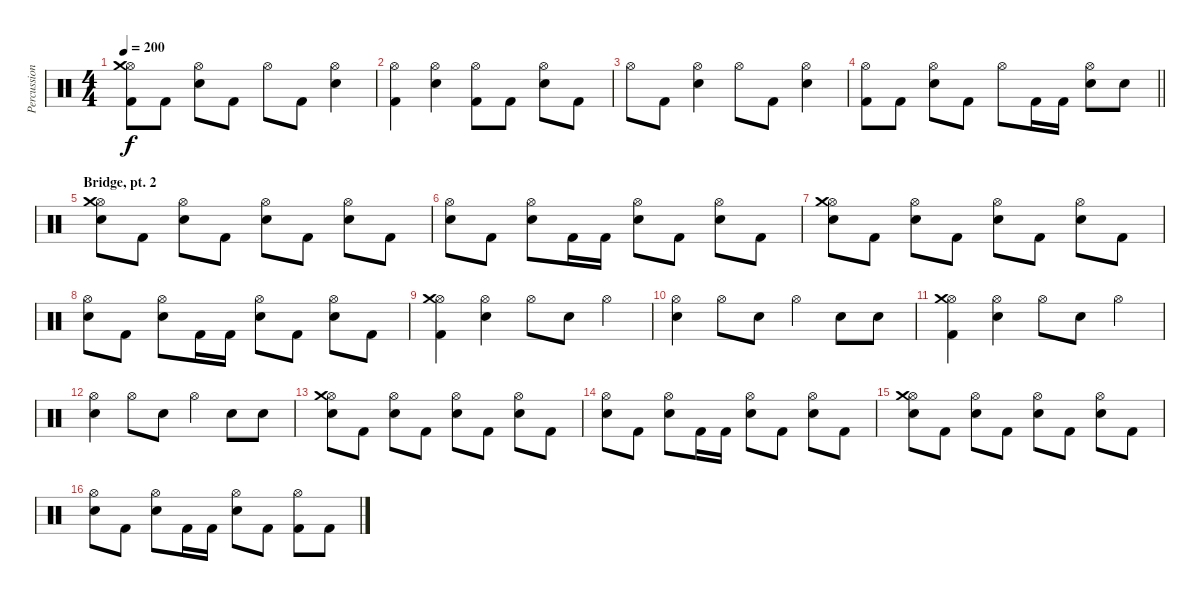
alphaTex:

\track ("Percussions" "Percussion") {instrument percussion}
\staff {score}
\articulation defaults
\ts (4 4)
\tempo 200
\clef neutral
\ks c
("Hi-Hat (open)" "Crash medium (hit)" "Kick (hit) 2").8{dy f} "Kick (hit) 2".8 ("Hi-Hat (open)" "Electric Snare (hit)").8 "Kick (hit) 2".8 "Hi-Hat (open)".8 "Kick (hit) 2".8 ("Hi-Hat (open)" "Electric Snare (hit)").4 |
("Hi-Hat (open)" "Kick (hit) 2").4 ("Hi-Hat (open)" "Electric Snare (hit)").4 ("Hi-Hat (open)" "Kick (hit) 2").8 "Kick (hit) 2".8 ("Hi-Hat (open)" "Electric Snare (hit)").8 "Kick (hit) 2".8 |
"Hi-Hat (open)".8 "Kick (hit) 2".8 ("Hi-Hat (open)" "Electric Snare (hit)").4 "Hi-Hat (open)".8 "Kick (hit) 2".8 ("Hi-Hat (open)" "Electric Snare (hit)").4 |
\barLineRight lightlight
("Hi-Hat (open)" "Kick (hit) 2").8 "Kick (hit) 2".8 ("Hi-Hat (open)" "Electric Snare (hit)").8 "Kick (hit) 2".8 "Hi-Hat (open)".8 "Kick (hit) 2".16 "Kick (hit) 2".16 ("Hi-Hat (open)" "Electric Snare (hit)").8 "Electric Snare (hit)".8 |
\section ("" "Bridge, pt. 2")
("Hi-Hat (open)" "Crash medium (hit)" "Electric Snare (hit)").8 "Kick (hit) 2".8 ("Hi-Hat (open)" "Electric Snare (hit)").8 "Kick (hit) 2".8 ("Hi-Hat (open)" "Electric Snare (hit)").8 "Kick (hit) 2".8 ("Hi-Hat (open)" "Electric Snare (hit)").8 "Kick (hit) 2".8 |
("Hi-Hat (open)" "Electric Snare (hit)").8 "Kick (hit) 2".8 ("Hi-Hat (open)" "Electric Snare (hit)").8 "Kick (hit) 2".16 "Kick (hit) 2".16 ("Hi-Hat (open)" "Electric Snare (hit)").8 "Kick (hit) 2".8 ("Hi-Hat (open)" "Electric Snare (hit)").8 "Kick (hit) 2".8 |
("Hi-Hat (open)" "Crash medium (hit)" "Electric Snare (hit)").8 "Kick (hit) 2".8 ("Hi-Hat (open)" "Electric Snare (hit)").8 "Kick (hit) 2".8 ("Hi-Hat (open)" "Electric Snare (hit)").8 "Kick (hit) 2".8 ("Hi-Hat (open)" "Electric Snare (hit)").8 "Kick (hit) 2".8 |
("Hi-Hat (open)" "Electric Snare (hit)").8 "Kick (hit) 2".8 ("Hi-Hat (open)" "Electric Snare (hit)").8 "Kick (hit) 2".16 "Kick (hit) 2".16 ("Hi-Hat (open)" "Electric Snare (hit)").8 "Kick (hit) 2".8 ("Hi-Hat (open)" "Electric Snare (hit)").8 "Kick (hit) 2".8 |
("Hi-Hat (open)" "Crash medium (hit)" "Kick (hit) 2").4 ("Hi-Hat (open)" "Electric Snare (hit)").4 "Hi-Hat (open)".8 "Electric Snare (hit)".8 "Hi-Hat (open)".4 |
("Hi-Hat (open)" "Electric Snare (hit)").4 "Hi-Hat (open)".8 "Electric Snare (hit)".8 "Hi-Hat (open)".4 "Electric Snare (hit)".8 "Electric Snare (hit)".8 |
("Hi-Hat (open)" "Crash medium (hit)" "Kick (hit) 2").4 ("Hi-Hat (open)" "Electric Snare (hit)").4 "Hi-Hat (open)".8 "Electric Snare (hit)".8 "Hi-Hat (open)".4 |
("Hi-Hat (open)" "Electric Snare (hit)").4 "Hi-Hat (open)".8 "Electric Snare (hit)".8 "Hi-Hat (open)".4 "Electric Snare (hit)".8 "Electric Snare (hit)".8 |
("Hi-Hat (open)" "Crash medium (hit)" "Electric Snare (hit)").8 "Kick (hit) 2".8 ("Hi-Hat (open)" "Electric Snare (hit)").8 "Kick (hit) 2".8 ("Hi-Hat (open)" "Electric Snare (hit)").8 "Kick (hit) 2".8 ("Hi-Hat (open)" "Electric Snare (hit)").8 "Kick (hit) 2".8 |
("Hi-Hat (open)" "Electric Snare (hit)").8 "Kick (hit) 2".8 ("Hi-Hat (open)" "Electric Snare (hit)").8 "Kick (hit) 2".16 "Kick (hit) 2".16 ("Hi-Hat (open)" "Electric Snare (hit)").8 "Kick (hit) 2".8 ("Hi-Hat (open)" "Electric Snare (hit)").8 "Kick (hit) 2".8 |
("Hi-Hat (open)" "Crash medium (hit)" "Electric Snare (hit)").8 "Kick (hit) 2".8 ("Hi-Hat (open)" "Electric Snare (hit)").8 "Kick (hit) 2".8 ("Hi-Hat (open)" "Electric Snare (hit)").8 "Kick (hit) 2".8 ("Hi-Hat (open)" "Electric Snare (hit)").8 "Kick (hit) 2".8 |
("Hi-Hat (open)" "Electric Snare (hit)").8 "Kick (hit) 2".8 ("Hi-Hat (open)" "Electric Snare (hit)").8 "Kick (hit) 2".16 "Kick (hit) 2".16 ("Hi-Hat (open)" "Electric Snare (hit)").8 "Kick (hit) 2".8 ("Hi-Hat (open)" "Kick (hit) 2").8 "Kick (hit) 2".8
